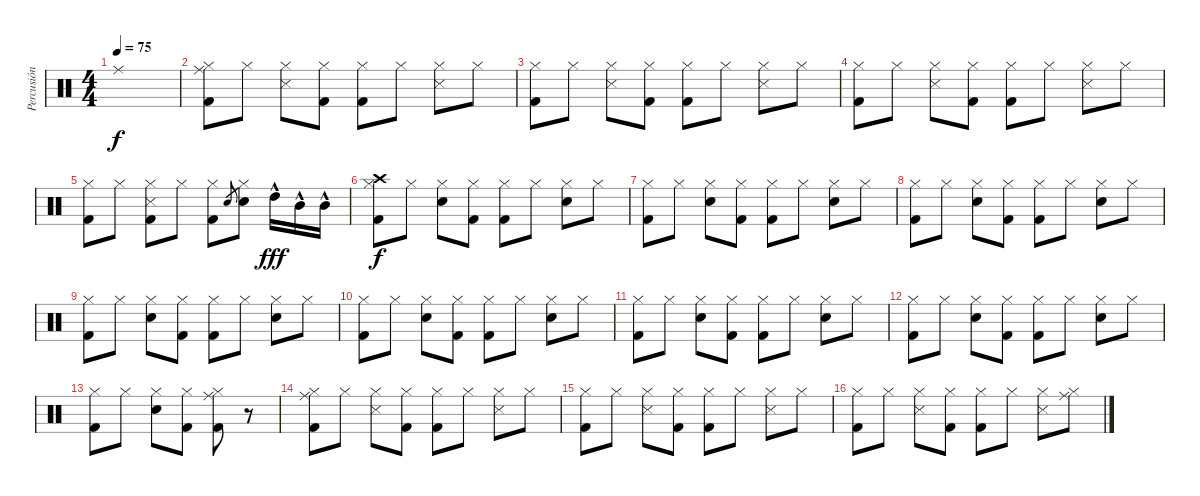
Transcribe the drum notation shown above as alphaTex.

\track ("Percusión" "Percusión") {instrument percussion}
\staff {score}
\articulation defaults
\ts (4 4)
\tempo 75
\clef neutral
\ks c "Ride (middle)".1{dy f}
|
("Hi-Hat (closed)" "Kick (hit) 2" "Ride (middle)").8 "Hi-Hat (closed)".8 ("Hi-Hat (closed)" "Snare (side stick) 3").8 ("Hi-Hat (closed)" "Kick (hit) 2").8 ("Hi-Hat (closed)" "Kick (hit) 2").8 "Hi-Hat (closed)".8 ("Hi-Hat (closed)" "Snare (side stick) 3").8 "Hi-Hat (closed)".8 |
("Hi-Hat (closed)" "Kick (hit) 2").8 "Hi-Hat (closed)".8 ("Hi-Hat (closed)" "Snare (side stick) 3").8 ("Hi-Hat (closed)" "Kick (hit) 2").8 ("Hi-Hat (closed)" "Kick (hit) 2").8 "Hi-Hat (closed)".8 ("Hi-Hat (closed)" "Snare (side stick) 3").8 "Hi-Hat (closed)".8 |
("Hi-Hat (closed)" "Kick (hit) 2").8 "Hi-Hat (closed)".8 ("Hi-Hat (closed)" "Snare (side stick) 3").8 ("Hi-Hat (closed)" "Kick (hit) 2").8 ("Hi-Hat (closed)" "Kick (hit) 2").8 "Hi-Hat (closed)".8 ("Hi-Hat (closed)" "Snare (side stick) 3").8 "Hi-Hat (closed)".8 |
("Hi-Hat (closed)" "Kick (hit) 2").8 "Hi-Hat (closed)".8 ("Hi-Hat (closed)" "Snare (side stick) 3" "Kick (hit) 2").8 "Hi-Hat (closed)".8 ("Hi-Hat (closed)" "Kick (hit) 2").8 "Electric Snare (hit)".8{gr} ("Hi-Hat (closed)" "Electric Snare (hit)").8 "High Tom (hit)"{hac}.16{dy fff} "Mid Tom (hit)"{hac}.16 "Mid Tom (hit)"{hac}.16 |
("Hi-Hat (closed)" "Kick (hit) 2" "Crash high (hit)").8{dy f} "Hi-Hat (closed)".8 ("Hi-Hat (closed)" "Electric Snare (hit)").8 ("Hi-Hat (closed)" "Kick (hit) 2").8 ("Hi-Hat (closed)" "Kick (hit) 2").8 "Hi-Hat (closed)".8 ("Hi-Hat (closed)" "Electric Snare (hit)").8 "Hi-Hat (closed)".8 |
("Hi-Hat (closed)" "Kick (hit) 2").8 "Hi-Hat (closed)".8 ("Hi-Hat (closed)" "Electric Snare (hit)").8 ("Hi-Hat (closed)" "Kick (hit) 2").8 ("Hi-Hat (closed)" "Kick (hit) 2").8 "Hi-Hat (closed)".8 ("Hi-Hat (closed)" "Electric Snare (hit)").8 "Hi-Hat (closed)".8 |
("Hi-Hat (closed)" "Kick (hit) 2").8 "Hi-Hat (closed)".8 ("Hi-Hat (closed)" "Electric Snare (hit)").8 ("Hi-Hat (closed)" "Kick (hit) 2").8 ("Hi-Hat (closed)" "Kick (hit) 2").8 "Hi-Hat (closed)".8 ("Hi-Hat (closed)" "Electric Snare (hit)").8 "Hi-Hat (closed)".8 |
("Hi-Hat (closed)" "Kick (hit) 2").8 "Hi-Hat (closed)".8 ("Hi-Hat (closed)" "Electric Snare (hit)").8 ("Hi-Hat (closed)" "Kick (hit) 2").8 ("Hi-Hat (closed)" "Kick (hit) 2").8 "Hi-Hat (closed)".8 ("Hi-Hat (closed)" "Electric Snare (hit)").8 "Hi-Hat (closed)".8 |
("Hi-Hat (closed)" "Kick (hit) 2").8 "Hi-Hat (closed)".8 ("Hi-Hat (closed)" "Electric Snare (hit)").8 ("Hi-Hat (closed)" "Kick (hit) 2").8 ("Hi-Hat (closed)" "Kick (hit) 2").8 "Hi-Hat (closed)".8 ("Hi-Hat (closed)" "Electric Snare (hit)").8 "Hi-Hat (closed)".8 |
("Hi-Hat (closed)" "Kick (hit) 2").8 "Hi-Hat (closed)".8 ("Hi-Hat (closed)" "Electric Snare (hit)").8 ("Hi-Hat (closed)" "Kick (hit) 2").8 ("Hi-Hat (closed)" "Kick (hit) 2").8 "Hi-Hat (closed)".8 ("Hi-Hat (closed)" "Electric Snare (hit)").8 "Hi-Hat (closed)".8 |
("Hi-Hat (closed)" "Kick (hit) 2").8 "Hi-Hat (closed)".8 ("Hi-Hat (closed)" "Electric Snare (hit)").8 ("Hi-Hat (closed)" "Kick (hit) 2").8 ("Hi-Hat (closed)" "Kick (hit) 2").8 "Hi-Hat (closed)".8 ("Hi-Hat (closed)" "Electric Snare (hit)").8 "Hi-Hat (closed)".8 |
("Hi-Hat (closed)" "Kick (hit) 2").8 "Hi-Hat (closed)".8 ("Hi-Hat (closed)" "Electric Snare (hit)").8 ("Hi-Hat (closed)" "Kick (hit) 2").8 ("Ride (middle)" "Hi-Hat (closed)" "Kick (hit) 2").8 r.8 |
("Hi-Hat (closed)" "Kick (hit) 2" "Ride (middle)").8 "Hi-Hat (closed)".8 ("Hi-Hat (closed)" "Snare (side stick) 3").8 ("Hi-Hat (closed)" "Kick (hit) 2").8 ("Hi-Hat (closed)" "Kick (hit) 2").8 "Hi-Hat (closed)".8 ("Hi-Hat (closed)" "Snare (side stick) 3").8 "Hi-Hat (closed)".8 |
("Hi-Hat (closed)" "Kick (hit) 2").8 "Hi-Hat (closed)".8 ("Hi-Hat (closed)" "Snare (side stick) 3").8 ("Hi-Hat (closed)" "Kick (hit) 2").8 ("Hi-Hat (closed)" "Kick (hit) 2").8 "Hi-Hat (closed)".8 ("Hi-Hat (closed)" "Snare (side stick) 3").8 "Hi-Hat (closed)".8 |
("Hi-Hat (closed)" "Kick (hit) 2").8 "Hi-Hat (closed)".8 ("Hi-Hat (closed)" "Snare (side stick) 3").8 ("Hi-Hat (closed)" "Kick (hit) 2").8 ("Hi-Hat (closed)" "Kick (hit) 2").8 "Hi-Hat (closed)".8 ("Hi-Hat (closed)" "Snare (side stick) 3").8 ("Hi-Hat (closed)" "Ride (middle)").8
